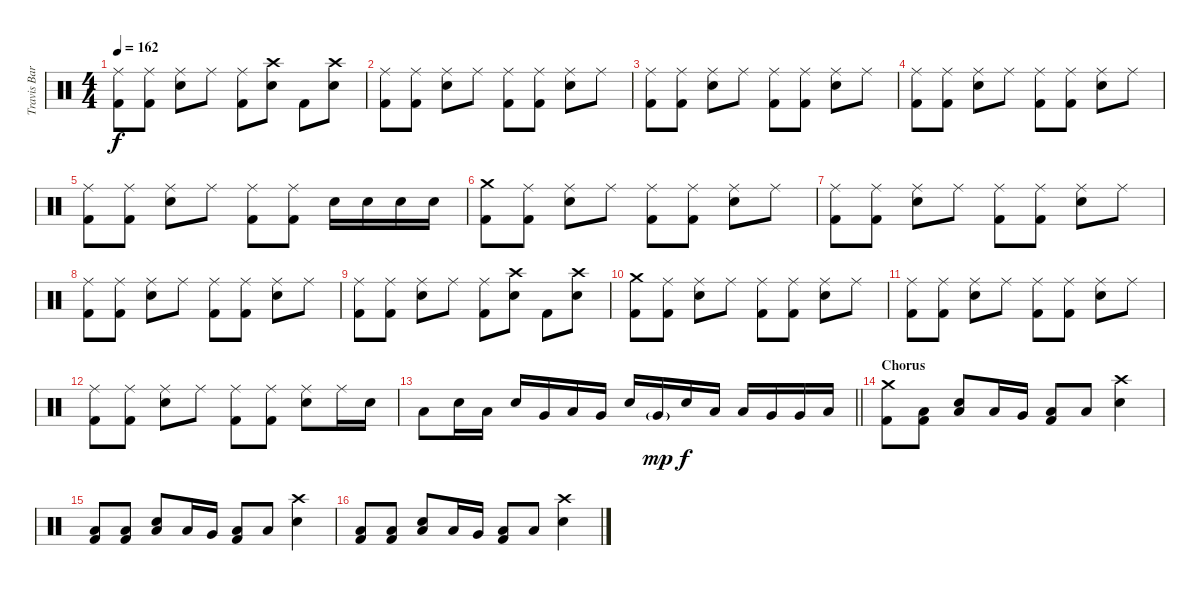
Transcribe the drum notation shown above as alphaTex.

\track ("Travis Barker - Drums" "Travis Bar") {instrument percussion}
\staff {score}
\articulation defaults
\ts (4 4)
\tempo 162
\clef neutral
\ks c
("Ride (middle)" "Kick (hit) 2").8{dy f} ("Ride (middle)" "Kick (hit) 2").8 ("Ride (middle)" "Electric Snare (hit)").8 "Ride (middle)".8 ("Ride (middle)" "Kick (hit) 2").8 ("Crash high (hit)" "Electric Snare (hit)").8 "Kick (hit) 2".8 ("Crash high (hit)" "Electric Snare (hit)").8 |
("Ride (middle)" "Kick (hit) 2").8 ("Ride (middle)" "Kick (hit) 2").8 ("Ride (middle)" "Electric Snare (hit)").8 "Ride (middle)".8 ("Ride (middle)" "Kick (hit) 2").8 ("Ride (middle)" "Kick (hit) 2").8 ("Ride (middle)" "Electric Snare (hit)").8 "Ride (middle)".8 |
("Ride (middle)" "Kick (hit) 2").8 ("Ride (middle)" "Kick (hit) 2").8 ("Ride (middle)" "Electric Snare (hit)").8 "Ride (middle)".8 ("Ride (middle)" "Kick (hit) 2").8 ("Ride (middle)" "Kick (hit) 2").8 ("Ride (middle)" "Electric Snare (hit)").8 "Ride (middle)".8 |
("Ride (middle)" "Kick (hit) 2").8 ("Ride (middle)" "Kick (hit) 2").8 ("Ride (middle)" "Electric Snare (hit)").8 "Ride (middle)".8 ("Ride (middle)" "Kick (hit) 2").8 ("Ride (middle)" "Kick (hit) 2").8 ("Ride (middle)" "Electric Snare (hit)").8 "Ride (middle)".8 |
("Ride (middle)" "Kick (hit) 2").8 ("Ride (middle)" "Kick (hit) 2").8 ("Ride (middle)" "Electric Snare (hit)").8 "Ride (middle)".8 ("Ride (middle)" "Kick (hit) 2").8 ("Ride (middle)" "Kick (hit) 2").8 "Electric Snare (hit)".16 "Electric Snare (hit)".16 "Electric Snare (hit)".16 "Electric Snare (hit)".16 |
("Crash medium (hit)" "Kick (hit) 2").8 ("Ride (middle)" "Kick (hit) 2").8 ("Ride (middle)" "Electric Snare (hit)").8 "Ride (middle)".8 ("Ride (middle)" "Kick (hit) 2").8 ("Ride (middle)" "Kick (hit) 2").8 ("Ride (middle)" "Electric Snare (hit)").8 "Ride (middle)".8 |
("Ride (middle)" "Kick (hit) 2").8 ("Ride (middle)" "Kick (hit) 2").8 ("Ride (middle)" "Electric Snare (hit)").8 "Ride (middle)".8 ("Ride (middle)" "Kick (hit) 2").8 ("Ride (middle)" "Kick (hit) 2").8 ("Ride (middle)" "Electric Snare (hit)").8 "Ride (middle)".8 |
("Ride (middle)" "Kick (hit) 2").8 ("Ride (middle)" "Kick (hit) 2").8 ("Ride (middle)" "Electric Snare (hit)").8 "Ride (middle)".8 ("Ride (middle)" "Kick (hit) 2").8 ("Ride (middle)" "Kick (hit) 2").8 ("Ride (middle)" "Electric Snare (hit)").8 "Ride (middle)".8 |
("Ride (middle)" "Kick (hit) 2").8 ("Ride (middle)" "Kick (hit) 2").8 ("Ride (middle)" "Electric Snare (hit)").8 "Ride (middle)".8 ("Ride (middle)" "Kick (hit) 2").8 ("Crash high (hit)" "Electric Snare (hit)").8 "Kick (hit) 2".8 ("Crash high (hit)" "Electric Snare (hit)").8 |
("Crash medium (hit)" "Kick (hit) 2").8 ("Ride (middle)" "Kick (hit) 2").8 ("Ride (middle)" "Electric Snare (hit)").8 "Ride (middle)".8 ("Ride (middle)" "Kick (hit) 2").8 ("Ride (middle)" "Kick (hit) 2").8 ("Ride (middle)" "Electric Snare (hit)").8 "Ride (middle)".8 |
("Ride (middle)" "Kick (hit) 2").8 ("Ride (middle)" "Kick (hit) 2").8 ("Ride (middle)" "Electric Snare (hit)").8 "Ride (middle)".8 ("Ride (middle)" "Kick (hit) 2").8 ("Ride (middle)" "Kick (hit) 2").8 ("Ride (middle)" "Electric Snare (hit)").8 "Ride (middle)".8 |
("Ride (middle)" "Kick (hit) 2").8 ("Ride (middle)" "Kick (hit) 2").8 ("Ride (middle)" "Electric Snare (hit)").8 "Ride (middle)".8 ("Ride (middle)" "Kick (hit) 2").8 ("Ride (middle)" "Kick (hit) 2").8 ("Ride (middle)" "Electric Snare (hit)").8 "Ride (middle)".16 "Electric Snare (hit)".16 |
\barLineRight lightlight "Low Tom (hit)".8 "Electric Snare (hit)".16 "Low Tom (hit)".16 "Electric Snare (hit)".16 "Very Low Tom (hit)".16 "Low Tom (hit)".16 "Very Low Tom (hit)".16 "Electric Snare (hit)".16 "Very Low Tom (hit)"{g}.16{dy mp} "Electric Snare (hit)".16{dy f} "Low Tom (hit)".16 "Low Tom (hit)".16 "Very Low Tom (hit)".16 "Very Low Tom (hit)".16 "Low Floor Tom (hit)".16
|
\section ("" "Chorus")
("Crash medium (hit)" "Kick (hit) 2").8 ("Low Floor Tom (hit)" "Kick (hit) 2").8 ("Low Floor Tom (hit)" "Electric Snare (hit)").8 "Low Tom (hit)".16 "Very Low Tom (hit)".16 ("Low Floor Tom (hit)" "Kick (hit) 2").8 "Low Floor Tom (hit)".8 ("Crash high (hit)" "Electric Snare (hit)").4 |
("Low Floor Tom (hit)" "Kick (hit) 2").8 ("Low Floor Tom (hit)" "Kick (hit) 2").8 ("Low Floor Tom (hit)" "Electric Snare (hit)").8 "Low Tom (hit)".16 "Very Low Tom (hit)".16 ("Low Floor Tom (hit)" "Kick (hit) 2").8 "Low Floor Tom (hit)".8 ("Crash high (hit)" "Electric Snare (hit)").4 |
("Low Floor Tom (hit)" "Kick (hit) 2").8 ("Low Floor Tom (hit)" "Kick (hit) 2").8 ("Low Floor Tom (hit)" "Electric Snare (hit)").8 "Low Tom (hit)".16 "Very Low Tom (hit)".16 ("Low Floor Tom (hit)" "Kick (hit) 2").8 "Low Floor Tom (hit)".8 ("Crash high (hit)" "Electric Snare (hit)").4
